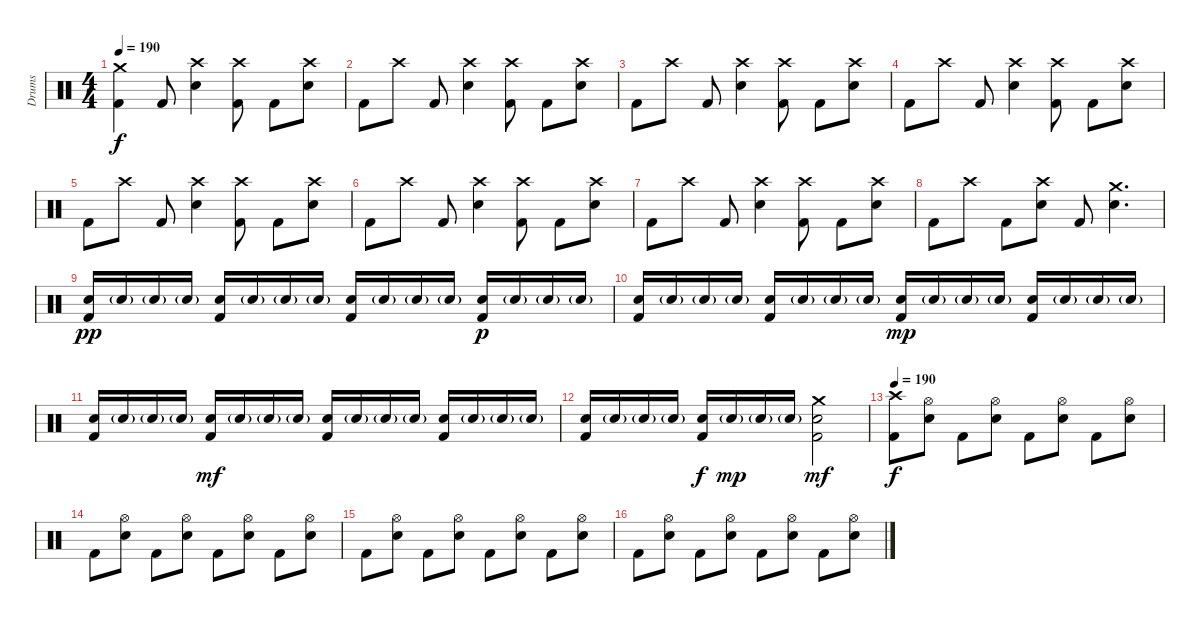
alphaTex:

\track ("Drums" "Drums") {instrument percussion}
\staff {score}
\articulation defaults
\ts (4 4)
\tempo 190
\clef neutral
\ks c
("Crash medium (hit)" "Kick (hit) 2").4{dy f} "Kick (hit) 2".8 ("Crash high (hit)" "Electric Snare (hit)").4 ("Crash high (hit)" "Kick (hit) 2").8 "Kick (hit) 2".8 ("Crash high (hit)" "Electric Snare (hit)").8 |
"Kick (hit) 2".8 "Crash high (hit)".8 "Kick (hit) 2".8 ("Crash high (hit)" "Electric Snare (hit)").4 ("Crash high (hit)" "Kick (hit) 2").8 "Kick (hit) 2".8 ("Crash high (hit)" "Electric Snare (hit)").8 |
"Kick (hit) 2".8 "Crash high (hit)".8 "Kick (hit) 2".8 ("Crash high (hit)" "Electric Snare (hit)").4 ("Crash high (hit)" "Kick (hit) 2").8 "Kick (hit) 2".8 ("Crash high (hit)" "Electric Snare (hit)").8 |
"Kick (hit) 2".8 "Crash high (hit)".8 "Kick (hit) 2".8 ("Crash high (hit)" "Electric Snare (hit)").4 ("Crash high (hit)" "Kick (hit) 2").8 "Kick (hit) 2".8 ("Crash high (hit)" "Electric Snare (hit)").8 |
"Kick (hit) 2".8 "Crash high (hit)".8 "Kick (hit) 2".8 ("Crash high (hit)" "Electric Snare (hit)").4 ("Crash high (hit)" "Kick (hit) 2").8 "Kick (hit) 2".8 ("Crash high (hit)" "Electric Snare (hit)").8 |
"Kick (hit) 2".8 "Crash high (hit)".8 "Kick (hit) 2".8 ("Crash high (hit)" "Electric Snare (hit)").4 ("Crash high (hit)" "Kick (hit) 2").8 "Kick (hit) 2".8 ("Crash high (hit)" "Electric Snare (hit)").8 |
"Kick (hit) 2".8 "Crash high (hit)".8 "Kick (hit) 2".8 ("Crash high (hit)" "Electric Snare (hit)").4 ("Crash high (hit)" "Kick (hit) 2").8 "Kick (hit) 2".8 ("Crash high (hit)" "Electric Snare (hit)").8 |
"Kick (hit) 2".8 "Crash high (hit)".8 "Kick (hit) 2".8 ("Crash high (hit)" "Electric Snare (hit)").8 "Kick (hit) 2".8 ("Crash medium (hit)" "Electric Snare (hit)").4{d} |
("Electric Snare (hit)" "Kick (hit) 2").16{dy pp} "Electric Snare (hit)"{g}.16 "Electric Snare (hit)"{g}.16 "Electric Snare (hit)"{g}.16 ("Electric Snare (hit)" "Kick (hit) 2").16 "Electric Snare (hit)"{g}.16 "Electric Snare (hit)"{g}.16 "Electric Snare (hit)"{g}.16 ("Electric Snare (hit)" "Kick (hit) 2").16 "Electric Snare (hit)"{g}.16 "Electric Snare (hit)"{g}.16 "Electric Snare (hit)"{g}.16 ("Electric Snare (hit)" "Kick (hit) 2").16{dy p} "Electric Snare (hit)"{g}.16 "Electric Snare (hit)"{g}.16 "Electric Snare (hit)"{g}.16 |
("Electric Snare (hit)" "Kick (hit) 2").16 "Electric Snare (hit)"{g}.16 "Electric Snare (hit)"{g}.16 "Electric Snare (hit)"{g}.16 ("Electric Snare (hit)" "Kick (hit) 2").16 "Electric Snare (hit)"{g}.16 "Electric Snare (hit)"{g}.16 "Electric Snare (hit)"{g}.16 ("Electric Snare (hit)" "Kick (hit) 2").16{dy mp} "Electric Snare (hit)"{g}.16 "Electric Snare (hit)"{g}.16 "Electric Snare (hit)"{g}.16 ("Electric Snare (hit)" "Kick (hit) 2").16 "Electric Snare (hit)"{g}.16 "Electric Snare (hit)"{g}.16 "Electric Snare (hit)"{g}.16 |
("Electric Snare (hit)" "Kick (hit) 2").16 "Electric Snare (hit)"{g}.16 "Electric Snare (hit)"{g}.16 "Electric Snare (hit)"{g}.16 ("Electric Snare (hit)" "Kick (hit) 2").16{dy mf} "Electric Snare (hit)"{g}.16 "Electric Snare (hit)"{g}.16 "Electric Snare (hit)"{g}.16 ("Electric Snare (hit)" "Kick (hit) 2").16 "Electric Snare (hit)"{g}.16 "Electric Snare (hit)"{g}.16 "Electric Snare (hit)"{g}.16 ("Electric Snare (hit)" "Kick (hit) 2").16 "Electric Snare (hit)"{g}.16 "Electric Snare (hit)"{g}.16 "Electric Snare (hit)"{g}.16 |
("Electric Snare (hit)" "Kick (hit) 2").16 "Electric Snare (hit)"{g}.16 "Electric Snare (hit)"{g}.16 "Electric Snare (hit)"{g}.16 ("Electric Snare (hit)" "Kick (hit) 2").16{dy f} "Electric Snare (hit)"{g}.16{dy mp} "Electric Snare (hit)"{g}.16 "Electric Snare (hit)"{g}.16 ("Crash medium (hit)" "Electric Snare (hit)" "Kick (hit) 2").2{dy mf} |
\tempo 190
("Crash high (hit)" "Kick (hit) 2").8{dy f} ("Hi-Hat (open)" "Electric Snare (hit)").8 "Kick (hit) 2".8 ("Hi-Hat (open)" "Electric Snare (hit)").8 "Kick (hit) 2".8 ("Hi-Hat (open)" "Electric Snare (hit)").8 "Kick (hit) 2".8 ("Hi-Hat (open)" "Electric Snare (hit)").8 |
"Kick (hit) 2".8 ("Hi-Hat (open)" "Electric Snare (hit)").8 "Kick (hit) 2".8 ("Hi-Hat (open)" "Electric Snare (hit)").8 "Kick (hit) 2".8 ("Hi-Hat (open)" "Electric Snare (hit)").8 "Kick (hit) 2".8 ("Hi-Hat (open)" "Electric Snare (hit)").8 |
"Kick (hit) 2".8 ("Hi-Hat (open)" "Electric Snare (hit)").8 "Kick (hit) 2".8 ("Hi-Hat (open)" "Electric Snare (hit)").8 "Kick (hit) 2".8 ("Hi-Hat (open)" "Electric Snare (hit)").8 "Kick (hit) 2".8 ("Hi-Hat (open)" "Electric Snare (hit)").8 |
"Kick (hit) 2".8 ("Hi-Hat (open)" "Electric Snare (hit)").8 "Kick (hit) 2".8 ("Hi-Hat (open)" "Electric Snare (hit)").8 "Kick (hit) 2".8 ("Hi-Hat (open)" "Electric Snare (hit)").8 "Kick (hit) 2".8 ("Hi-Hat (open)" "Electric Snare (hit)").8
